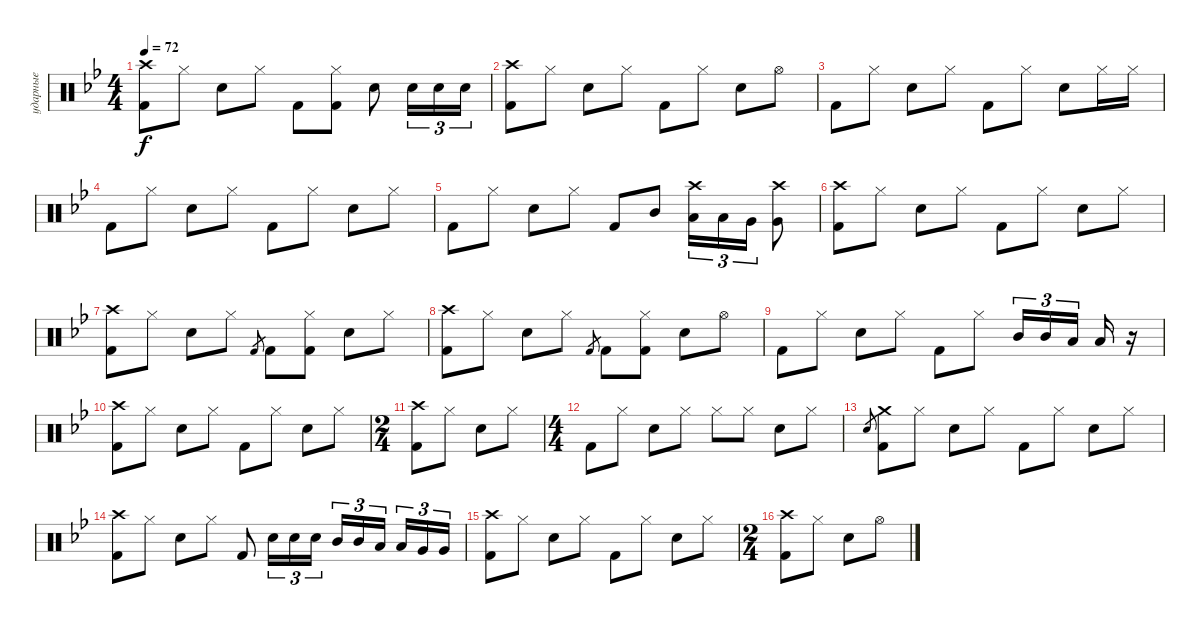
\track ("ударные" "ударные") {instrument percussion}
\staff {score}
\articulation defaults
\ts (4 4)
\tempo 72
\clef neutral
\ks gminor
("Crash high (hit)"{t} "Kick (hit) 2").8{dy f} "Hi-Hat (closed)".8 "Electric Snare (hit)".8 "Hi-Hat (closed)".8 "Kick (hit) 2".8 ("Hi-Hat (closed)" "Kick (hit) 2").8 "Electric Snare (hit)".8 "Electric Snare (hit)".16{tu (3 2)} "Electric Snare (hit)".16{tu (3 2)} "Electric Snare (hit)".16{tu (3 2)} |
("Crash high (hit)" "Kick (hit) 2").8 "Hi-Hat (closed)".8 "Electric Snare (hit)".8 "Hi-Hat (closed)".8 "Kick (hit) 2".8 "Hi-Hat (closed)".8 "Electric Snare (hit)".8 "Hi-Hat (open)".8 |
"Kick (hit) 2".8 "Hi-Hat (closed)".8 "Electric Snare (hit)".8 "Hi-Hat (closed)".8 "Kick (hit) 2".8 "Hi-Hat (closed)".8 "Electric Snare (hit)".8 "Hi-Hat (closed)".16 "Hi-Hat (closed)".16 |
"Kick (hit) 2".8 "Hi-Hat (closed)".8 "Electric Snare (hit)".8 "Hi-Hat (closed)".8 "Kick (hit) 2".8 "Hi-Hat (closed)".8 "Electric Snare (hit)".8 "Hi-Hat (closed)".8 |
"Kick (hit) 2".8 "Hi-Hat (closed)".8 "Electric Snare (hit)".8 "Hi-Hat (closed)".8 "Kick (hit) 2".8 "Mid Tom (hit)".8 ("Crash high (hit)" "Low Tom (hit)").16{tu (3 2)} "Low Tom (hit)".16{tu (3 2)} "Very Low Tom (hit)".16{tu (3 2)} ("Crash high (hit)" "Very Low Tom (hit)").8 |
("Crash high (hit)" "Kick (hit) 2").8 "Hi-Hat (closed)".8 "Electric Snare (hit)".8 "Hi-Hat (closed)".8 "Kick (hit) 2".8 "Hi-Hat (closed)".8 "Electric Snare (hit)".8 "Hi-Hat (closed)".8 |
("Crash high (hit)" "Kick (hit) 2").8 "Hi-Hat (closed)".8 "Electric Snare (hit)".8 "Hi-Hat (closed)".8 "Kick (hit) 2".8{gr} "Kick (hit) 2".8 ("Hi-Hat (closed)" "Kick (hit) 2").8 "Electric Snare (hit)".8 "Hi-Hat (closed)".8 |
("Crash high (hit)" "Kick (hit) 2").8 "Hi-Hat (closed)".8 "Electric Snare (hit)".8 "Hi-Hat (closed)".8 "Kick (hit) 2".8{gr} "Kick (hit) 2".8 ("Hi-Hat (closed)" "Kick (hit) 2").8 "Electric Snare (hit)".8 "Hi-Hat (open)".8 |
"Kick (hit) 2".8 "Hi-Hat (closed)".8 "Electric Snare (hit)".8 "Hi-Hat (closed)".8 "Kick (hit) 2".8 "Hi-Hat (closed)".8 "Mid Tom (hit)".16{tu (3 2)} "Mid Tom (hit)".16{tu (3 2)} "Low Tom (hit)".16{tu (3 2) beam splitsecondary} "Low Tom (hit)".16 r.16 |
("Crash high (hit)" "Kick (hit) 2").8 "Hi-Hat (closed)".8 "Electric Snare (hit)".8 "Hi-Hat (closed)".8 "Kick (hit) 2".8 "Hi-Hat (closed)".8 "Electric Snare (hit)".8 "Hi-Hat (closed)".8 |
\ts (2 4)
("Crash high (hit)" "Kick (hit) 2").8 "Hi-Hat (closed)".8 "Electric Snare (hit)".8 "Hi-Hat (closed)".8 |
\ts (4 4)
"Kick (hit) 2".8 "Hi-Hat (closed)".8 "Electric Snare (hit)".8 "Hi-Hat (closed)".8 "Hi-Hat (closed)".8 "Hi-Hat (closed)".8 "Electric Snare (hit)".8 "Hi-Hat (closed)".8 |
"Electric Snare (hit)".8{gr} ("Crash medium (hit)" "Kick (hit) 2").8 "Hi-Hat (closed)".8 "Electric Snare (hit)".8 "Hi-Hat (closed)".8 "Kick (hit) 2".8 "Hi-Hat (closed)".8 "Electric Snare (hit)".8 "Hi-Hat (closed)".8 |
("Crash high (hit)" "Kick (hit) 2").8 "Hi-Hat (closed)".8 "Electric Snare (hit)".8 "Hi-Hat (closed)".8 "Kick (hit) 2".8 "Electric Snare (hit)".16{tu (3 2)} "Electric Snare (hit)".16{tu (3 2)} "Electric Snare (hit)".16{tu (3 2)} "Mid Tom (hit)".16{tu (3 2)} "Mid Tom (hit)".16{tu (3 2)} "Low Tom (hit)".16{tu (3 2) beam splitsecondary} "Low Tom (hit)".16{tu (3 2)} "Very Low Tom (hit)".16{tu (3 2)} "Very Low Tom (hit)".16{tu (3 2)} |
("Crash high (hit)" "Kick (hit) 2").8 "Hi-Hat (closed)".8 "Electric Snare (hit)".8 "Hi-Hat (closed)".8 "Kick (hit) 2".8 "Hi-Hat (closed)".8 "Electric Snare (hit)".8 "Hi-Hat (closed)".8 |
\ts (2 4)
("Crash high (hit)" "Kick (hit) 2").8 "Hi-Hat (closed)".8 "Electric Snare (hit)".8 "Hi-Hat (open)".8
